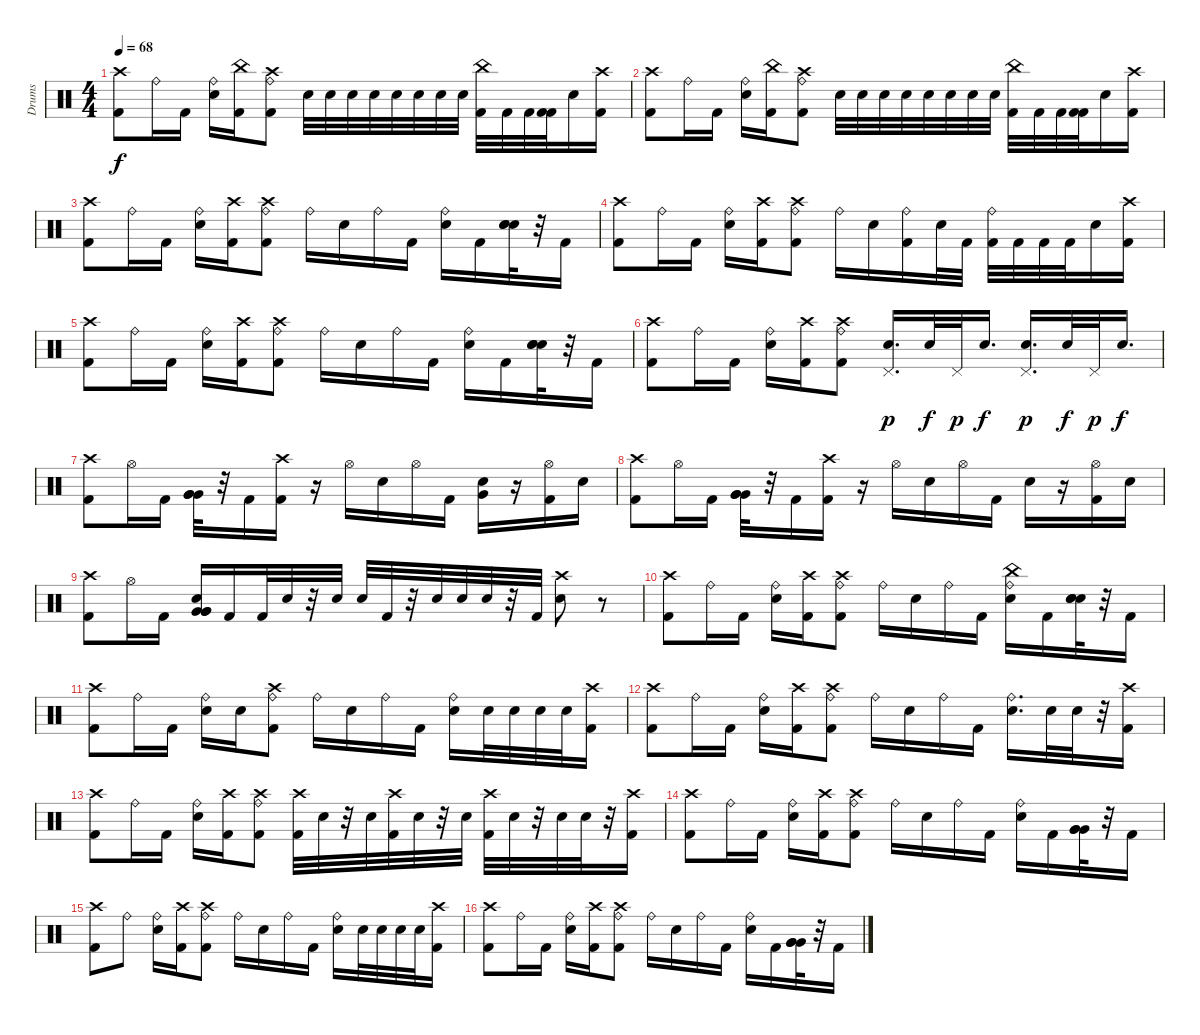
\track ("Drums" "Drums") {instrument percussion}
\staff {score}
\articulation defaults
\ts (4 4)
\tempo 68
\clef neutral
\ks c
("Crash high (hit)" "Kick (hit) 2").8{dy f} "Ride (bell)".16 "Kick (hit) 2".16 ("Ride (bell)" "Electric Snare (hit)").16 ("Kick (hit) 2" "China (hit)").16 ("Ride (bell)" "Crash high (hit)" "Kick (hit) 2").8 "Electric Snare (hit)".32 "Electric Snare (hit)".32 "Electric Snare (hit)".32 "Electric Snare (hit)".32 "Electric Snare (hit)".32 "Electric Snare (hit)".32 "Electric Snare (hit)".32 "Electric Snare (hit)".32 ("China (hit)" "Kick (hit) 2").32 "Kick (hit) 2".32 "Kick (hit) 2".32 ("Kick (hit) 2" "Kick (hit) 2").32 "Electric Snare (hit)".16 ("Crash high (hit)" "Kick (hit) 2").16 |
("Crash high (hit)" "Kick (hit) 2").8 "Ride (bell)".16 "Kick (hit) 2".16 ("Ride (bell)" "Electric Snare (hit)").16 ("Kick (hit) 2" "China (hit)").16 ("Ride (bell)" "Crash high (hit)" "Kick (hit) 2").8 "Electric Snare (hit)".32 "Electric Snare (hit)".32 "Electric Snare (hit)".32 "Electric Snare (hit)".32 "Electric Snare (hit)".32 "Electric Snare (hit)".32 "Electric Snare (hit)".32 "Electric Snare (hit)".32 ("China (hit)" "Kick (hit) 2").32 "Kick (hit) 2".32 "Kick (hit) 2".32 ("Kick (hit) 2" "Kick (hit) 2").32 "Electric Snare (hit)".16 ("Crash high (hit)" "Kick (hit) 2").16 |
("Kick (hit) 2" "Crash high (hit)").8 "Ride (bell)".16 "Kick (hit) 2".16 ("Ride (bell)" "Electric Snare (hit)").16 ("Kick (hit) 2" "Crash high (hit)").16 ("Ride (bell)" "Crash high (hit)" "Kick (hit) 2").8 "Ride (bell)".16 "Electric Snare (hit)".16 "Ride (bell)".16 "Kick (hit) 2".16 ("Electric Snare (hit)" "Ride (bell)").16 "Kick (hit) 2".16 ("Electric Snare (hit)" "Electric Snare (hit)" "Electric Snare (hit)").32 r.32 "Kick (hit) 2".16 |
("Kick (hit) 2" "Crash high (hit)").8 "Ride (bell)".16 "Kick (hit) 2".16 ("Ride (bell)" "Electric Snare (hit)").16 ("Crash high (hit)" "Kick (hit) 2").16 ("Ride (bell)" "Crash high (hit)" "Kick (hit) 2").8 "Ride (bell)".16 "Electric Snare (hit)".16 ("Ride (bell)" "Kick (hit) 2").16 "Electric Snare (hit)".32 "Kick (hit) 2".32 ("Kick (hit) 2" "Ride (bell)").32 "Kick (hit) 2".32 "Kick (hit) 2".32 "Kick (hit) 2".32 "Electric Snare (hit)".16 ("Crash high (hit)" "Kick (hit) 2").16 |
("Kick (hit) 2" "Crash high (hit)").8 "Ride (bell)".16 "Kick (hit) 2".16 ("Ride (bell)" "Electric Snare (hit)").16 ("Crash high (hit)" "Kick (hit) 2").16 ("Ride (bell)" "Crash high (hit)" "Kick (hit) 2").8 "Ride (bell)".16 "Electric Snare (hit)".16 "Ride (bell)".16 "Kick (hit) 2".16 ("Electric Snare (hit)" "Ride (bell)").16 "Kick (hit) 2".16 ("Electric Snare (hit)" "Electric Snare (hit)" "Electric Snare (hit)").32 r.32 "Kick (hit) 2".16 |
("Crash high (hit)" "Kick (hit) 2").8 "Ride (bell)".16 "Kick (hit) 2".16 ("Ride (bell)" "Electric Snare (hit)").16 ("Crash high (hit)" "Kick (hit) 2").16 ("Ride (bell)" "Crash high (hit)" "Kick (hit) 2").8 ("Electric Snare (hit)" "Pedal Hi-Hat (hit)").16{d dy p} "Electric Snare (hit)".32{dy f} "Pedal Hi-Hat (hit)".32{dy p} "Electric Snare (hit)".16{d dy f} ("Electric Snare (hit)" "Pedal Hi-Hat (hit)").16{d dy p} "Electric Snare (hit)".32{dy f} "Pedal Hi-Hat (hit)".32{dy p} "Electric Snare (hit)".16{d dy f} |
("Kick (hit) 2" "Crash high (hit)").8 "Hi-Hat (open)".16 "Kick (hit) 2".16 ("Very Low Tom (hit)" "Very Low Tom (hit)" "Very Low Tom (hit)").32 r.32 "Kick (hit) 2".16 ("Crash high (hit)" "Kick (hit) 2").16 r.16 "Hi-Hat (open)".16 "Electric Snare (hit)".16 "Hi-Hat (open)".16 "Kick (hit) 2".16 ("Electric Snare (hit)" "Very Low Tom (hit)").16 r.16 ("Kick (hit) 2" "Hi-Hat (open)").16 "Electric Snare (hit)".16 |
("Kick (hit) 2" "Crash high (hit)").8 "Hi-Hat (open)".16 "Kick (hit) 2".16 ("Very Low Tom (hit)" "Very Low Tom (hit)" "Very Low Tom (hit)").32 r.32 "Kick (hit) 2".16 ("Crash high (hit)" "Kick (hit) 2").16 r.16 "Hi-Hat (open)".16 "Electric Snare (hit)".16 "Hi-Hat (open)".16 "Kick (hit) 2".16 "Electric Snare (hit)".16 r.16 ("Kick (hit) 2" "Hi-Hat (open)").16 "Electric Snare (hit)".16 |
("Crash high (hit)" "Kick (hit) 2").8 "Hi-Hat (open)".16 "Kick (hit) 2".16 ("Very Low Tom (hit)" "Very Low Tom (hit)" "Electric Snare (hit)" "Very Low Tom (hit)").16 "Kick (hit) 2".16 "Kick (hit) 2".32 "Electric Snare (hit)".32 r.32 "Electric Snare (hit)".32 "Electric Snare (hit)".32 "Kick (hit) 2".32 r.32 "Electric Snare (hit)".32 "Electric Snare (hit)".32 "Electric Snare (hit)".32 r.32 "Kick (hit) 2".32 ("Electric Snare (hit)" "Crash high (hit)").8 r.8 |
("Crash high (hit)" "Kick (hit) 2").8 "Ride (bell)".16 "Kick (hit) 2".16 ("Ride (bell)" "Electric Snare (hit)").16 ("Kick (hit) 2" "Crash high (hit)").16 ("Ride (bell)" "Crash high (hit)" "Kick (hit) 2").8 "Ride (bell)".16 "Electric Snare (hit)".16 "Ride (bell)".16 "Kick (hit) 2".16 ("Electric Snare (hit)" "Ride (bell)" "China (hit)").16 "Kick (hit) 2".16 ("Electric Snare (hit)" "Electric Snare (hit)" "Electric Snare (hit)").32 r.32 "Kick (hit) 2".16 |
("Kick (hit) 2" "Crash high (hit)").8 "Ride (bell)".16 "Kick (hit) 2".16 ("Ride (bell)" "Electric Snare (hit)").16 "Electric Snare (hit)".16 ("Ride (bell)" "Crash high (hit)" "Kick (hit) 2").8 "Ride (bell)".16 "Electric Snare (hit)".16 "Ride (bell)".16 "Kick (hit) 2".16 ("Ride (bell)" "Electric Snare (hit)").16 "Electric Snare (hit)".32 "Electric Snare (hit)".32 "Electric Snare (hit)".32 "Electric Snare (hit)".32 ("Crash high (hit)" "Kick (hit) 2").16 |
("Kick (hit) 2" "Crash high (hit)").8 "Ride (bell)".16 "Kick (hit) 2".16 ("Ride (bell)" "Electric Snare (hit)").16 ("Crash high (hit)" "Kick (hit) 2").16 ("Ride (bell)" "Crash high (hit)" "Kick (hit) 2").8 "Ride (bell)".16 "Electric Snare (hit)".16 "Ride (bell)".16 "Kick (hit) 2".16 ("Electric Snare (hit)" "Ride (bell)").16{d} "Electric Snare (hit)".32 "Electric Snare (hit)".32 r.32 ("Kick (hit) 2" "Crash high (hit)").16 |
("Crash high (hit)" "Kick (hit) 2").8 "Ride (bell)".16 "Kick (hit) 2".16 ("Ride (bell)" "Electric Snare (hit)").16 ("Crash high (hit)" "Kick (hit) 2").16 ("Ride (bell)" "Crash high (hit)" "Kick (hit) 2").8 ("Kick (hit) 2" "Crash high (hit)").32 "Electric Snare (hit)".32 r.32 "Electric Snare (hit)".32 ("Kick (hit) 2" "Crash high (hit)").32 "Electric Snare (hit)".32 r.32 "Electric Snare (hit)".32 ("Kick (hit) 2" "Crash high (hit)").32 "Electric Snare (hit)".32 r.32 "Electric Snare (hit)".32 "Electric Snare (hit)".32 r.32 ("Crash high (hit)" "Kick (hit) 2").16 |
("Kick (hit) 2" "Crash high (hit)").8 "Ride (bell)".16 "Kick (hit) 2".16 ("Ride (bell)" "Electric Snare (hit)").16 ("Kick (hit) 2" "Crash high (hit)").16 ("Ride (bell)" "Crash high (hit)" "Kick (hit) 2").8 "Ride (bell)".16 "Electric Snare (hit)".16 "Ride (bell)".16 "Kick (hit) 2".16 ("Electric Snare (hit)" "Ride (bell)").16 "Kick (hit) 2".16 ("Very Low Tom (hit)" "Very Low Tom (hit)" "Very Low Tom (hit)").32 r.32 "Kick (hit) 2".16 |
("Kick (hit) 2" "Crash high (hit)").8 "Ride (bell)".8 ("Ride (bell)" "Electric Snare (hit)").16 ("Kick (hit) 2" "Crash high (hit)").16 ("Ride (bell)" "Crash high (hit)" "Kick (hit) 2").8 "Ride (bell)".16 "Electric Snare (hit)".16 "Ride (bell)".16 "Kick (hit) 2".16 ("Ride (bell)" "Electric Snare (hit)").16 "Electric Snare (hit)".32 "Electric Snare (hit)".32 "Electric Snare (hit)".32 "Electric Snare (hit)".32 ("Crash high (hit)" "Kick (hit) 2").16 |
("Crash high (hit)" "Kick (hit) 2").8 "Ride (bell)".16 "Kick (hit) 2".16 ("Ride (bell)" "Electric Snare (hit)").16 ("Kick (hit) 2" "Crash high (hit)").16 ("Ride (bell)" "Crash high (hit)" "Kick (hit) 2").8 "Ride (bell)".16 "Electric Snare (hit)".16 "Ride (bell)".16 "Kick (hit) 2".16 ("Electric Snare (hit)" "Ride (bell)").16 "Kick (hit) 2".16 ("Very Low Tom (hit)" "Very Low Tom (hit)" "Very Low Tom (hit)").32 r.32 "Kick (hit) 2".16
